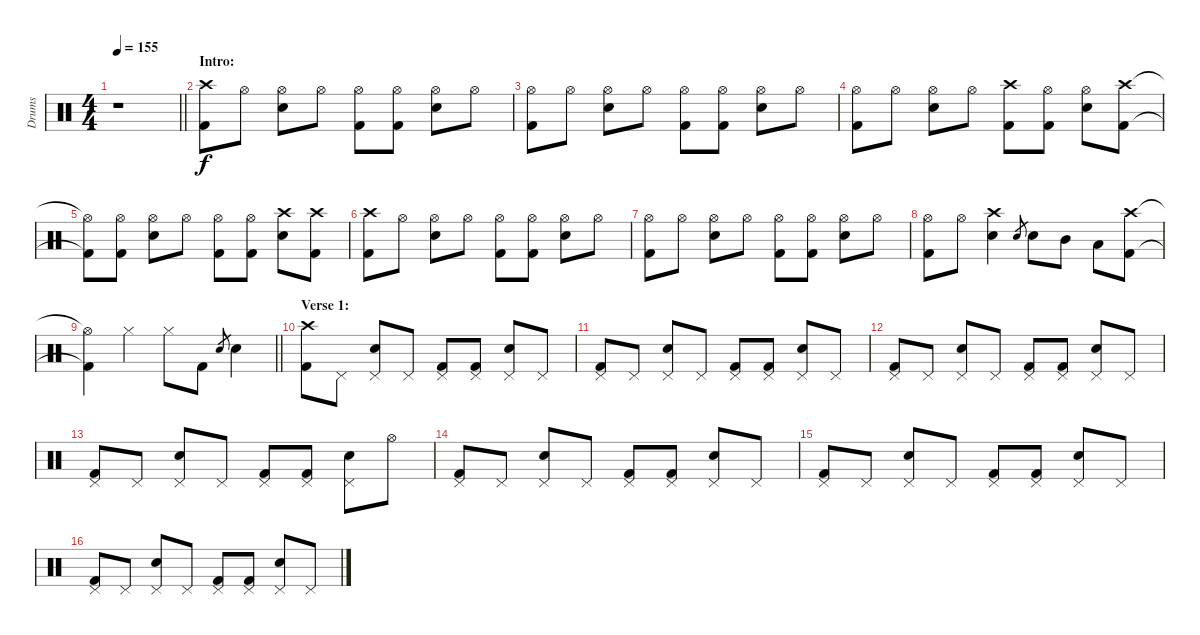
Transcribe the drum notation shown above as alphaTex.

\track ("Drums" "Drums") {instrument percussion}
\staff {score}
\articulation defaults
\ts (4 4)
\tempo 155
\clef neutral
\barLineRight lightlight
\ks c
r.1{dy f} |
\section ("" "Intro:")
("Crash high (hit)" "Kick (hit) 2").8 "Hi-Hat (open)".8 ("Hi-Hat (open)" "Electric Snare (hit)").8 "Hi-Hat (open)".8 ("Hi-Hat (open)" "Kick (hit) 2").8 ("Hi-Hat (open)" "Kick (hit) 2").8 ("Hi-Hat (open)" "Electric Snare (hit)").8 "Hi-Hat (open)".8 |
("Hi-Hat (open)" "Kick (hit) 2").8 "Hi-Hat (open)".8 ("Hi-Hat (open)" "Electric Snare (hit)").8 "Hi-Hat (open)".8 ("Hi-Hat (open)" "Kick (hit) 2").8 ("Hi-Hat (open)" "Kick (hit) 2").8 ("Hi-Hat (open)" "Electric Snare (hit)").8 "Hi-Hat (open)".8 |
("Hi-Hat (open)" "Kick (hit) 2").8 "Hi-Hat (open)".8 ("Hi-Hat (open)" "Electric Snare (hit)").8 "Hi-Hat (open)".8 ("Crash high (hit)" "Kick (hit) 2").8 ("Hi-Hat (open)" "Kick (hit) 2").8 ("Hi-Hat (open)" "Electric Snare (hit)").8 ("Crash high (hit)" "Kick (hit) 2").8 |
("Hi-Hat (open)"{t} "Kick (hit) 2"{t}).8 ("Hi-Hat (open)" "Kick (hit) 2").8 ("Hi-Hat (open)" "Electric Snare (hit)").8 "Hi-Hat (open)".8 ("Hi-Hat (open)" "Kick (hit) 2").8 ("Hi-Hat (open)" "Kick (hit) 2").8 ("Crash high (hit)" "Electric Snare (hit)").8 ("Crash high (hit)" "Kick (hit) 2").8 |
("Crash high (hit)" "Kick (hit) 2").8 "Hi-Hat (open)".8 ("Hi-Hat (open)" "Electric Snare (hit)").8 "Hi-Hat (open)".8 ("Hi-Hat (open)" "Kick (hit) 2").8 ("Hi-Hat (open)" "Kick (hit) 2").8 ("Hi-Hat (open)" "Electric Snare (hit)").8 "Hi-Hat (open)".8 |
("Hi-Hat (open)" "Kick (hit) 2").8 "Hi-Hat (open)".8 ("Hi-Hat (open)" "Electric Snare (hit)").8 "Hi-Hat (open)".8 ("Hi-Hat (open)" "Kick (hit) 2").8 ("Hi-Hat (open)" "Kick (hit) 2").8 ("Hi-Hat (open)" "Electric Snare (hit)").8 "Hi-Hat (open)".8 |
("Hi-Hat (open)" "Kick (hit) 2").8 "Hi-Hat (open)".8 ("Crash high (hit)" "Electric Snare (hit)").4 "Electric Snare (hit)".8{gr} "Electric Snare (hit)".8 "Mid Tom (hit)".8 "Low Tom (hit)".8 ("Crash high (hit)" "Kick (hit) 2").8 |
\barLineRight lightlight
("Hi-Hat (open)"{t} "Kick (hit) 2"{t}).4 "Hi-Hat (closed)".4 "Hi-Hat (closed)".8 "Kick (hit) 2".8 "Electric Snare (hit)".8{gr} "Electric Snare (hit)".4 |
\section ("" "Verse 1:")
("Crash high (hit)" "Kick (hit) 2").8 "Pedal Hi-Hat (hit)".8 ("Pedal Hi-Hat (hit)" "Electric Snare (hit)").8 "Pedal Hi-Hat (hit)".8 ("Pedal Hi-Hat (hit)" "Kick (hit) 2").8 ("Pedal Hi-Hat (hit)" "Kick (hit) 2").8 ("Pedal Hi-Hat (hit)" "Electric Snare (hit)").8 "Pedal Hi-Hat (hit)".8 |
("Pedal Hi-Hat (hit)" "Kick (hit) 2").8 "Pedal Hi-Hat (hit)".8 ("Pedal Hi-Hat (hit)" "Electric Snare (hit)").8 "Pedal Hi-Hat (hit)".8 ("Pedal Hi-Hat (hit)" "Kick (hit) 2").8 ("Pedal Hi-Hat (hit)" "Kick (hit) 2").8 ("Pedal Hi-Hat (hit)" "Electric Snare (hit)").8 "Pedal Hi-Hat (hit)".8 |
("Pedal Hi-Hat (hit)" "Kick (hit) 2").8 "Pedal Hi-Hat (hit)".8 ("Pedal Hi-Hat (hit)" "Electric Snare (hit)").8 "Pedal Hi-Hat (hit)".8 ("Pedal Hi-Hat (hit)" "Kick (hit) 2").8 ("Pedal Hi-Hat (hit)" "Kick (hit) 2").8 ("Pedal Hi-Hat (hit)" "Electric Snare (hit)").8 "Pedal Hi-Hat (hit)".8 |
("Pedal Hi-Hat (hit)" "Kick (hit) 2").8 "Pedal Hi-Hat (hit)".8 ("Pedal Hi-Hat (hit)" "Electric Snare (hit)").8 "Pedal Hi-Hat (hit)".8 ("Pedal Hi-Hat (hit)" "Kick (hit) 2").8 ("Pedal Hi-Hat (hit)" "Kick (hit) 2").8 ("Pedal Hi-Hat (hit)" "Electric Snare (hit)").8 "Hi-Hat (open)".8 |
("Pedal Hi-Hat (hit)" "Kick (hit) 2").8 "Pedal Hi-Hat (hit)".8 ("Pedal Hi-Hat (hit)" "Electric Snare (hit)").8 "Pedal Hi-Hat (hit)".8 ("Pedal Hi-Hat (hit)" "Kick (hit) 2").8 ("Pedal Hi-Hat (hit)" "Kick (hit) 2").8 ("Pedal Hi-Hat (hit)" "Electric Snare (hit)").8 "Pedal Hi-Hat (hit)".8 |
("Pedal Hi-Hat (hit)" "Kick (hit) 2").8 "Pedal Hi-Hat (hit)".8 ("Pedal Hi-Hat (hit)" "Electric Snare (hit)").8 "Pedal Hi-Hat (hit)".8 ("Pedal Hi-Hat (hit)" "Kick (hit) 2").8 ("Pedal Hi-Hat (hit)" "Kick (hit) 2").8 ("Pedal Hi-Hat (hit)" "Electric Snare (hit)").8 "Pedal Hi-Hat (hit)".8 |
("Pedal Hi-Hat (hit)" "Kick (hit) 2").8 "Pedal Hi-Hat (hit)".8 ("Pedal Hi-Hat (hit)" "Electric Snare (hit)").8 "Pedal Hi-Hat (hit)".8 ("Pedal Hi-Hat (hit)" "Kick (hit) 2").8 ("Pedal Hi-Hat (hit)" "Kick (hit) 2").8 ("Pedal Hi-Hat (hit)" "Electric Snare (hit)").8 "Pedal Hi-Hat (hit)".8
